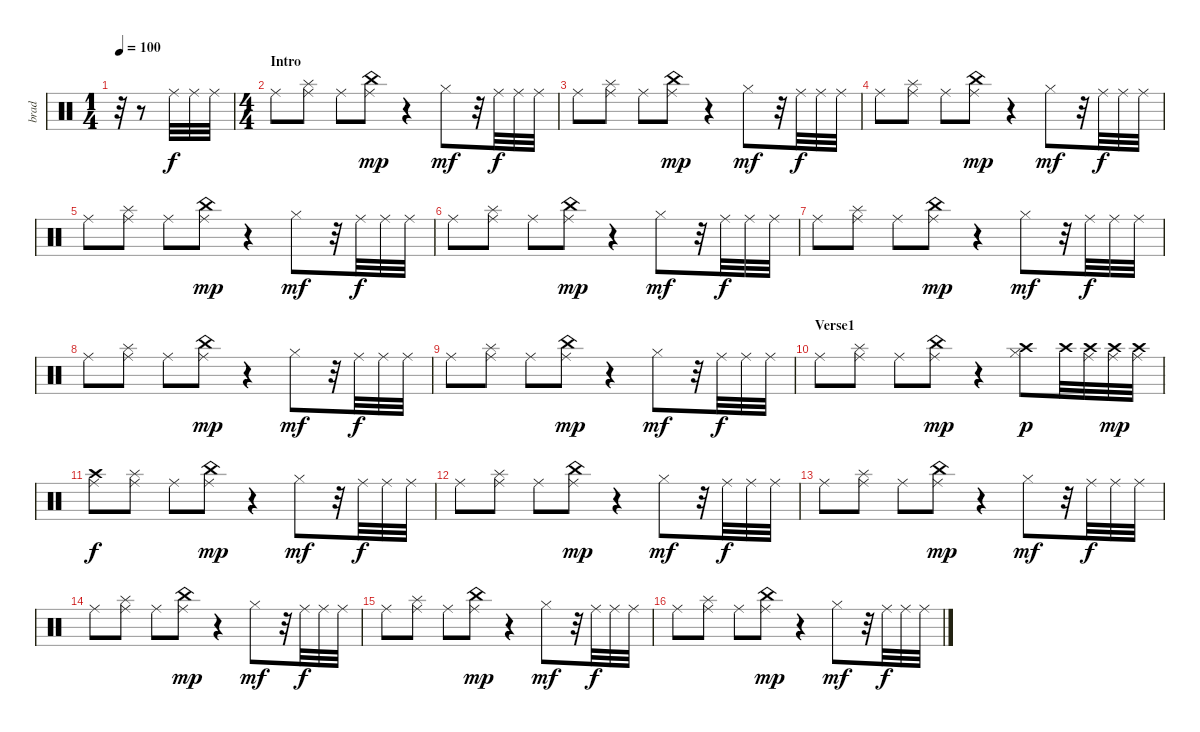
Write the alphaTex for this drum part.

\track ("brad" "brad") {instrument percussion}
\staff {score}
\articulation defaults
\ts (1 4)
\tempo 100
\clef neutral
\ks c
r.32{dy f} r.8 "Ride (middle)".32 "Ride (middle)".32 "Ride (middle)".32 |
\ts (4 4)
\section ("" "Intro")
"Ride (middle)".8 ("Splash (hit)" "Ride (middle)").8 "Ride (middle)".8 ("China (hit)" "Ride (middle)").8{dy mp} r.4 "Hi-Hat (closed)".8{dy mf} r.32 "Ride (middle)".32{dy f} "Ride (middle)".32 "Ride (middle)".32 |
"Ride (middle)".8 ("Splash (hit)" "Ride (middle)").8 "Ride (middle)".8 ("China (hit)" "Ride (middle)").8{dy mp} r.4 "Hi-Hat (closed)".8{dy mf} r.32 "Ride (middle)".32{dy f} "Ride (middle)".32 "Ride (middle)".32 |
"Ride (middle)".8 ("Splash (hit)" "Ride (middle)").8 "Ride (middle)".8 ("China (hit)" "Ride (middle)").8{dy mp} r.4 "Hi-Hat (closed)".8{dy mf} r.32 "Ride (middle)".32{dy f} "Ride (middle)".32 "Ride (middle)".32 |
"Ride (middle)".8 ("Splash (hit)" "Ride (middle)").8 "Ride (middle)".8 ("China (hit)" "Ride (middle)").8{dy mp} r.4 "Hi-Hat (closed)".8{dy mf} r.32 "Ride (middle)".32{dy f} "Ride (middle)".32 "Ride (middle)".32 |
"Ride (middle)".8 ("Splash (hit)" "Ride (middle)").8 "Ride (middle)".8 ("China (hit)" "Ride (middle)").8{dy mp} r.4 "Hi-Hat (closed)".8{dy mf} r.32 "Ride (middle)".32{dy f} "Ride (middle)".32 "Ride (middle)".32 |
"Ride (middle)".8 ("Splash (hit)" "Ride (middle)").8 "Ride (middle)".8 ("China (hit)" "Ride (middle)").8{dy mp} r.4 "Hi-Hat (closed)".8{dy mf} r.32 "Ride (middle)".32{dy f} "Ride (middle)".32 "Ride (middle)".32 |
"Ride (middle)".8 ("Splash (hit)" "Ride (middle)").8 "Ride (middle)".8 ("China (hit)" "Ride (middle)").8{dy mp} r.4 "Hi-Hat (closed)".8{dy mf} r.32 "Ride (middle)".32{dy f} "Ride (middle)".32 "Ride (middle)".32 |
"Ride (middle)".8 ("Splash (hit)" "Ride (middle)").8 "Ride (middle)".8 ("China (hit)" "Ride (middle)").8{dy mp} r.4 "Hi-Hat (closed)".8{dy mf} r.32 "Ride (middle)".32{dy f} "Ride (middle)".32 "Ride (middle)".32 |
\section ("" "Verse1")
"Ride (middle)".8 ("Splash (hit)" "Ride (middle)").8 "Ride (middle)".8 ("China (hit)" "Ride (middle)").8{dy mp} r.4 ("Crash high (hit)" "Hi-Hat (closed)").8{dy p} "Crash high (hit)".32 ("Crash high (hit)" "Ride (middle)").32 ("Crash high (hit)" "Ride (middle)").32{dy mp} ("Crash high (hit)" "Ride (middle)").32 |
("Crash high (hit)" "Ride (middle)").8{dy f} ("Splash (hit)" "Ride (middle)").8 "Ride (middle)".8 ("China (hit)" "Ride (middle)").8{dy mp} r.4 "Hi-Hat (closed)".8{dy mf} r.32 "Ride (middle)".32{dy f} "Ride (middle)".32 "Ride (middle)".32 |
"Ride (middle)".8 ("Splash (hit)" "Ride (middle)").8 "Ride (middle)".8 ("China (hit)" "Ride (middle)").8{dy mp} r.4 "Hi-Hat (closed)".8{dy mf} r.32 "Ride (middle)".32{dy f} "Ride (middle)".32 "Ride (middle)".32 |
"Ride (middle)".8 ("Splash (hit)" "Ride (middle)").8 "Ride (middle)".8 ("China (hit)" "Ride (middle)").8{dy mp} r.4 "Hi-Hat (closed)".8{dy mf} r.32 "Ride (middle)".32{dy f} "Ride (middle)".32 "Ride (middle)".32 |
"Ride (middle)".8 ("Splash (hit)" "Ride (middle)").8 "Ride (middle)".8 ("China (hit)" "Ride (middle)").8{dy mp} r.4 "Hi-Hat (closed)".8{dy mf} r.32 "Ride (middle)".32{dy f} "Ride (middle)".32 "Ride (middle)".32 |
"Ride (middle)".8 ("Splash (hit)" "Ride (middle)").8 "Ride (middle)".8 ("China (hit)" "Ride (middle)").8{dy mp} r.4 "Hi-Hat (closed)".8{dy mf} r.32 "Ride (middle)".32{dy f} "Ride (middle)".32 "Ride (middle)".32 |
"Ride (middle)".8 ("Splash (hit)" "Ride (middle)").8 "Ride (middle)".8 ("China (hit)" "Ride (middle)").8{dy mp} r.4 "Hi-Hat (closed)".8{dy mf} r.32 "Ride (middle)".32{dy f} "Ride (middle)".32 "Ride (middle)".32
